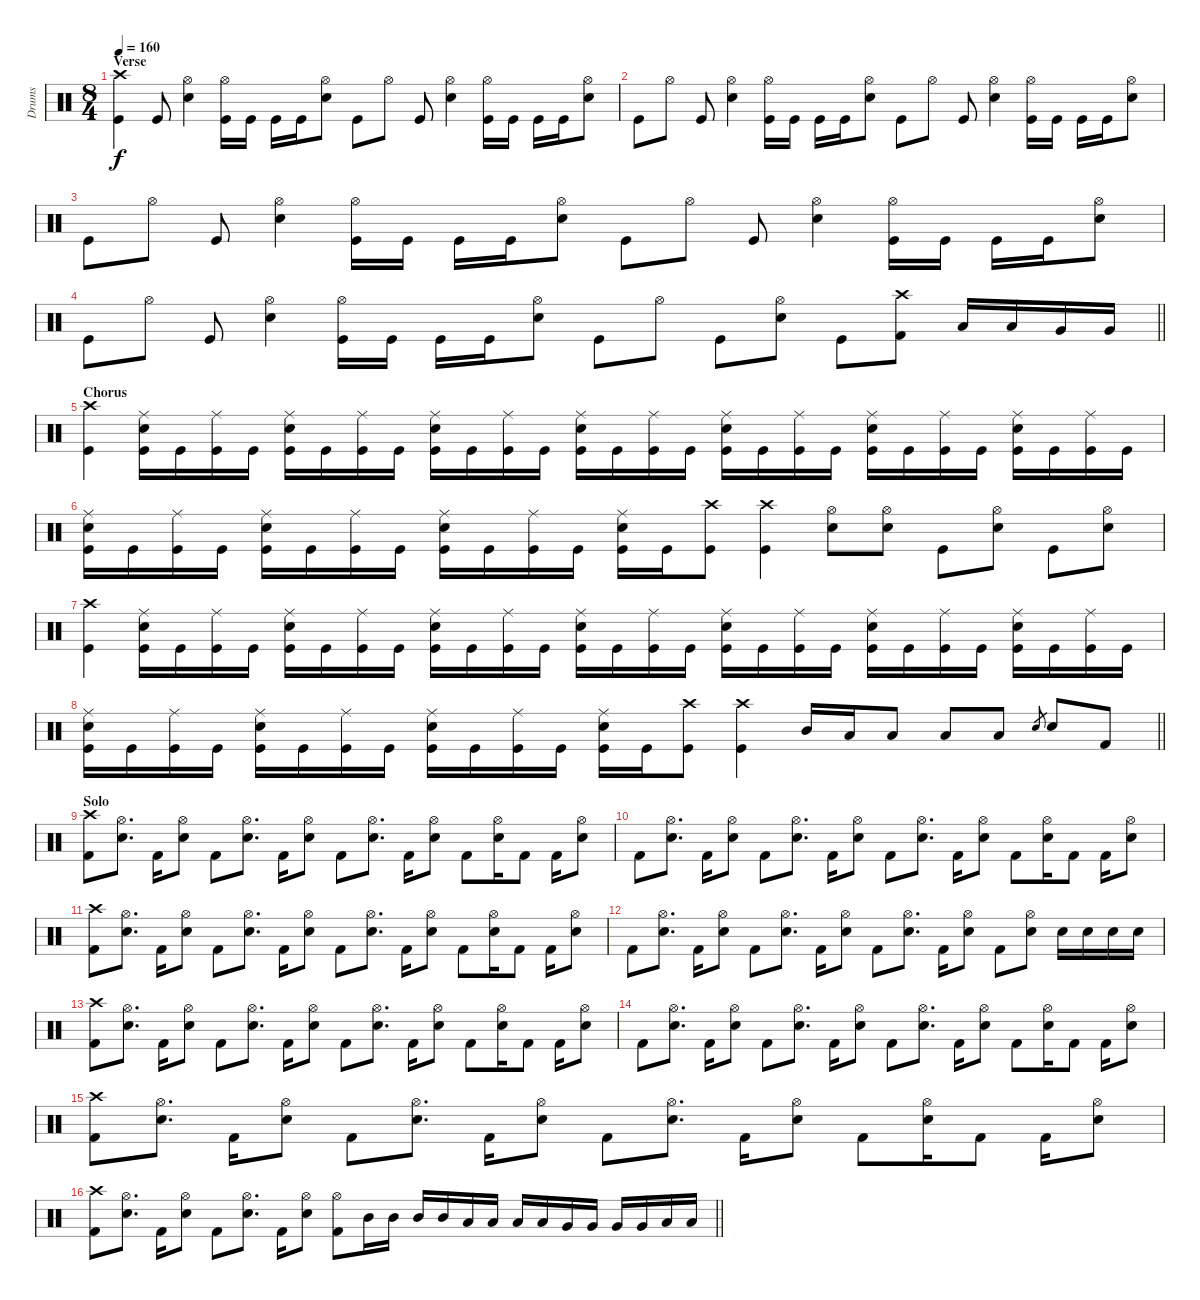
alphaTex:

\track ("Drums" "Drums") {instrument percussion}
\staff {score}
\articulation defaults
\ts (8 4)
\section ("" "Verse")
\tempo 160
\clef neutral
\ks c
("Crash high (hit)" "Kick (hit)").4{dy f} "Kick (hit)".8 ("Hi-Hat (open)" "Snare (hit) 2").4 ("Hi-Hat (open)" "Kick (hit)").16 "Kick (hit)".16 "Kick (hit)".16 "Kick (hit)".16 ("Hi-Hat (open)" "Snare (hit) 2").8 "Kick (hit)".8 "Hi-Hat (open)".8 "Kick (hit)".8 ("Hi-Hat (open)" "Snare (hit) 2").4 ("Hi-Hat (open)" "Kick (hit)").16 "Kick (hit)".16 "Kick (hit)".16 "Kick (hit)".16 ("Hi-Hat (open)" "Snare (hit) 2").8 |
"Kick (hit)".8 "Hi-Hat (open)".8 "Kick (hit)".8 ("Hi-Hat (open)" "Snare (hit) 2").4 ("Hi-Hat (open)" "Kick (hit)").16 "Kick (hit)".16 "Kick (hit)".16 "Kick (hit)".16 ("Hi-Hat (open)" "Snare (hit) 2").8 "Kick (hit)".8 "Hi-Hat (open)".8 "Kick (hit)".8 ("Hi-Hat (open)" "Snare (hit) 2").4 ("Hi-Hat (open)" "Kick (hit)").16 "Kick (hit)".16 "Kick (hit)".16 "Kick (hit)".16 ("Hi-Hat (open)" "Snare (hit) 2").8 |
"Kick (hit)".8 "Hi-Hat (open)".8 "Kick (hit)".8 ("Hi-Hat (open)" "Snare (hit) 2").4 ("Hi-Hat (open)" "Kick (hit)").16 "Kick (hit)".16 "Kick (hit)".16 "Kick (hit)".16 ("Hi-Hat (open)" "Snare (hit) 2").8 "Kick (hit)".8 "Hi-Hat (open)".8 "Kick (hit)".8 ("Hi-Hat (open)" "Snare (hit) 2").4 ("Hi-Hat (open)" "Kick (hit)").16 "Kick (hit)".16 "Kick (hit)".16 "Kick (hit)".16 ("Hi-Hat (open)" "Snare (hit) 2").8 |
\barLineRight lightlight "Kick (hit)".8 "Hi-Hat (open)".8 "Kick (hit)".8
("Hi-Hat (open)" "Snare (hit) 2").4 ("Hi-Hat (open)" "Kick (hit)").16 "Kick (hit)".16 "Kick (hit)".16 "Kick (hit)".16 ("Hi-Hat (open)" "Snare (hit) 2").8 "Kick (hit)".8 "Hi-Hat (open)".8 "Kick (hit)".8 ("Hi-Hat (open)" "Snare (hit) 2").8 "Kick (hit)".8 ("Crash high (hit)" "Kick (hit) 2").8 "Low Tom (hit)".16 "Low Tom (hit)".16 "Very Low Tom (hit)".16 "Very Low Tom (hit)".16 |
\section ("" "Chorus")
("Crash high (hit)" "Kick (hit)").4 ("Ride (middle)" "Snare (hit) 2" "Kick (hit)").16 "Kick (hit)".16 ("Ride (middle)" "Kick (hit)").16 "Kick (hit)".16 ("Ride (middle)" "Snare (hit) 2" "Kick (hit)").16 "Kick (hit)".16 ("Ride (middle)" "Kick (hit)").16 "Kick (hit)".16 ("Ride (middle)" "Snare (hit) 2" "Kick (hit)").16 "Kick (hit)".16 ("Ride (middle)" "Kick (hit)").16 "Kick (hit)".16 ("Ride (middle)" "Snare (hit) 2" "Kick (hit)").16 "Kick (hit)".16 ("Ride (middle)" "Kick (hit)").16 "Kick (hit)".16 ("Ride (middle)" "Snare (hit) 2" "Kick (hit)").16 "Kick (hit)".16 ("Ride (middle)" "Kick (hit)").16 "Kick (hit)".16 ("Ride (middle)" "Snare (hit) 2" "Kick (hit)").16 "Kick (hit)".16 ("Ride (middle)" "Kick (hit)").16 "Kick (hit)".16 ("Ride (middle)" "Snare (hit) 2" "Kick (hit)").16 "Kick (hit)".16 ("Ride (middle)" "Kick (hit)").16 "Kick (hit)".16 |
("Ride (middle)" "Snare (hit) 2" "Kick (hit)").16 "Kick (hit)".16 ("Ride (middle)" "Kick (hit)").16 "Kick (hit)".16 ("Ride (middle)" "Snare (hit) 2" "Kick (hit)").16 "Kick (hit)".16 ("Ride (middle)" "Kick (hit)").16 "Kick (hit)".16 ("Ride (middle)" "Snare (hit) 2" "Kick (hit)").16 "Kick (hit)".16 ("Ride (middle)" "Kick (hit)").16 "Kick (hit)".16 ("Ride (middle)" "Snare (hit) 2" "Kick (hit)").16 "Kick (hit)".16 ("Crash high (hit)" "Kick (hit)").8 ("Crash high (hit)" "Kick (hit)").4 ("Hi-Hat (open)" "Snare (hit) 2").8 ("Hi-Hat (open)" "Snare (hit) 2").8 "Kick (hit)".8 ("Hi-Hat (open)" "Snare (hit) 2").8 "Kick (hit)".8 ("Hi-Hat (open)" "Snare (hit) 2").8 |
("Crash high (hit)" "Kick (hit)").4 ("Ride (middle)" "Snare (hit) 2" "Kick (hit)").16 "Kick (hit)".16 ("Ride (middle)" "Kick (hit)").16 "Kick (hit)".16 ("Ride (middle)" "Snare (hit) 2" "Kick (hit)").16 "Kick (hit)".16 ("Ride (middle)" "Kick (hit)").16 "Kick (hit)".16 ("Ride (middle)" "Snare (hit) 2" "Kick (hit)").16 "Kick (hit)".16 ("Ride (middle)" "Kick (hit)").16 "Kick (hit)".16 ("Ride (middle)" "Snare (hit) 2" "Kick (hit)").16 "Kick (hit)".16 ("Ride (middle)" "Kick (hit)").16 "Kick (hit)".16 ("Ride (middle)" "Snare (hit) 2" "Kick (hit)").16 "Kick (hit)".16 ("Ride (middle)" "Kick (hit)").16 "Kick (hit)".16 ("Ride (middle)" "Snare (hit) 2" "Kick (hit)").16 "Kick (hit)".16 ("Ride (middle)" "Kick (hit)").16 "Kick (hit)".16 ("Ride (middle)" "Snare (hit) 2" "Kick (hit)").16 "Kick (hit)".16 ("Ride (middle)" "Kick (hit)").16 "Kick (hit)".16 |
\barLineRight lightlight
("Ride (middle)" "Snare (hit) 2" "Kick (hit)").16 "Kick (hit)".16 ("Ride (middle)" "Kick (hit)").16 "Kick (hit)".16 ("Ride (middle)" "Snare (hit) 2" "Kick (hit)").16 "Kick (hit)".16 ("Ride (middle)" "Kick (hit)").16 "Kick (hit)".16 ("Ride (middle)" "Snare (hit) 2" "Kick (hit)").16 "Kick (hit)".16 ("Ride (middle)" "Kick (hit)").16 "Kick (hit)".16 ("Ride (middle)" "Snare (hit) 2" "Kick (hit)").16 "Kick (hit)".16 ("Crash high (hit)" "Kick (hit)").8 ("Crash high (hit)" "Kick (hit)").4 "Mid Tom (hit)".16 "Low Tom (hit)".16 "Low Tom (hit)".8 "Low Tom (hit)".8 "Low Floor Tom (hit)".8 "Snare (hit) 2".8{gr} "Snare (hit) 2".8 "Kick (hit) 2".8 |
\section ("" "Solo")
("Crash high (hit)" "Kick (hit) 2").8 ("Hi-Hat (open)" "Snare (hit) 2").8{d} "Kick (hit) 2".16 ("Hi-Hat (open)" "Snare (hit) 2").8 "Kick (hit) 2".8 ("Hi-Hat (open)" "Snare (hit) 2").8{d} "Kick (hit) 2".16 ("Hi-Hat (open)" "Snare (hit) 2").8 "Kick (hit) 2".8 ("Hi-Hat (open)" "Snare (hit) 2").8{d} "Kick (hit) 2".16 ("Hi-Hat (open)" "Snare (hit) 2").8 "Kick (hit) 2".8 ("Hi-Hat (open)" "Snare (hit) 2").16 "Kick (hit) 2".8 "Kick (hit) 2".16 ("Hi-Hat (open)" "Snare (hit) 2").8 |
"Kick (hit) 2".8 ("Hi-Hat (open)" "Snare (hit) 2").8{d} "Kick (hit) 2".16 ("Hi-Hat (open)" "Snare (hit) 2").8 "Kick (hit) 2".8 ("Hi-Hat (open)" "Snare (hit) 2").8{d} "Kick (hit) 2".16 ("Hi-Hat (open)" "Snare (hit) 2").8 "Kick (hit) 2".8 ("Hi-Hat (open)" "Snare (hit) 2").8{d} "Kick (hit) 2".16 ("Hi-Hat (open)" "Snare (hit) 2").8 "Kick (hit) 2".8 ("Hi-Hat (open)" "Snare (hit) 2").16 "Kick (hit) 2".8 "Kick (hit) 2".16 ("Hi-Hat (open)" "Snare (hit) 2").8 |
("Crash high (hit)" "Kick (hit) 2").8 ("Hi-Hat (open)" "Snare (hit) 2").8{d} "Kick (hit) 2".16 ("Hi-Hat (open)" "Snare (hit) 2").8 "Kick (hit) 2".8 ("Hi-Hat (open)" "Snare (hit) 2").8{d} "Kick (hit) 2".16 ("Hi-Hat (open)" "Snare (hit) 2").8 "Kick (hit) 2".8 ("Hi-Hat (open)" "Snare (hit) 2").8{d} "Kick (hit) 2".16 ("Hi-Hat (open)" "Snare (hit) 2").8 "Kick (hit) 2".8 ("Hi-Hat (open)" "Snare (hit) 2").16 "Kick (hit) 2".8 "Kick (hit) 2".16 ("Hi-Hat (open)" "Snare (hit) 2").8 |
"Kick (hit) 2".8 ("Hi-Hat (open)" "Snare (hit) 2").8{d} "Kick (hit) 2".16 ("Hi-Hat (open)" "Snare (hit) 2").8 "Kick (hit) 2".8 ("Hi-Hat (open)" "Snare (hit) 2").8{d} "Kick (hit) 2".16 ("Hi-Hat (open)" "Snare (hit) 2").8 "Kick (hit) 2".8 ("Hi-Hat (open)" "Snare (hit) 2").8{d} "Kick (hit) 2".16 ("Hi-Hat (open)" "Snare (hit) 2").8 "Kick (hit) 2".8 ("Hi-Hat (open)" "Snare (hit) 2").8 "Snare (hit) 2".16 "Snare (hit) 2".16 "Snare (hit) 2".16 "Snare (hit) 2".16 |
("Crash high (hit)" "Kick (hit) 2").8 ("Hi-Hat (open)" "Snare (hit) 2").8{d} "Kick (hit) 2".16 ("Hi-Hat (open)" "Snare (hit) 2").8 "Kick (hit) 2".8 ("Hi-Hat (open)" "Snare (hit) 2").8{d} "Kick (hit) 2".16 ("Hi-Hat (open)" "Snare (hit) 2").8 "Kick (hit) 2".8 ("Hi-Hat (open)" "Snare (hit) 2").8{d} "Kick (hit) 2".16 ("Hi-Hat (open)" "Snare (hit) 2").8 "Kick (hit) 2".8 ("Hi-Hat (open)" "Snare (hit) 2").16 "Kick (hit) 2".8 "Kick (hit) 2".16 ("Hi-Hat (open)" "Snare (hit) 2").8 |
"Kick (hit) 2".8 ("Hi-Hat (open)" "Snare (hit) 2").8{d} "Kick (hit) 2".16 ("Hi-Hat (open)" "Snare (hit) 2").8 "Kick (hit) 2".8 ("Hi-Hat (open)" "Snare (hit) 2").8{d} "Kick (hit) 2".16 ("Hi-Hat (open)" "Snare (hit) 2").8 "Kick (hit) 2".8 ("Hi-Hat (open)" "Snare (hit) 2").8{d} "Kick (hit) 2".16 ("Hi-Hat (open)" "Snare (hit) 2").8 "Kick (hit) 2".8 ("Hi-Hat (open)" "Snare (hit) 2").16 "Kick (hit) 2".8 "Kick (hit) 2".16 ("Hi-Hat (open)" "Snare (hit) 2").8 |
("Crash high (hit)" "Kick (hit) 2").8 ("Hi-Hat (open)" "Snare (hit) 2").8{d} "Kick (hit) 2".16 ("Hi-Hat (open)" "Snare (hit) 2").8 "Kick (hit) 2".8 ("Hi-Hat (open)" "Snare (hit) 2").8{d} "Kick (hit) 2".16 ("Hi-Hat (open)" "Snare (hit) 2").8 "Kick (hit) 2".8 ("Hi-Hat (open)" "Snare (hit) 2").8{d} "Kick (hit) 2".16 ("Hi-Hat (open)" "Snare (hit) 2").8 "Kick (hit) 2".8 ("Hi-Hat (open)" "Snare (hit) 2").16 "Kick (hit) 2".8 "Kick (hit) 2".16 ("Hi-Hat (open)" "Snare (hit) 2").8 |
\barLineRight lightlight
("Crash high (hit)" "Kick (hit) 2").8 ("Hi-Hat (open)" "Snare (hit) 2").8{d} "Kick (hit) 2".16 ("Hi-Hat (open)" "Snare (hit) 2").8 "Kick (hit) 2".8 ("Hi-Hat (open)" "Snare (hit) 2").8{d} "Kick (hit) 2".16 ("Hi-Hat (open)" "Snare (hit) 2").8 ("Hi-Hat (open)" "Kick (hit) 2").8 "Mid Tom (hit)".16 "Mid Tom (hit)".16 "Mid Tom (hit)".16 "Mid Tom (hit)".16 "Low Tom (hit)".16 "Low Tom (hit)".16 "Low Tom (hit)".16 "Low Tom (hit)".16 "Very Low Tom (hit)".16 "Very Low Tom (hit)".16 "Very Low Tom (hit)".16 "Very Low Tom (hit)".16 "Low Floor Tom (hit)".16 "Low Floor Tom (hit)".16
